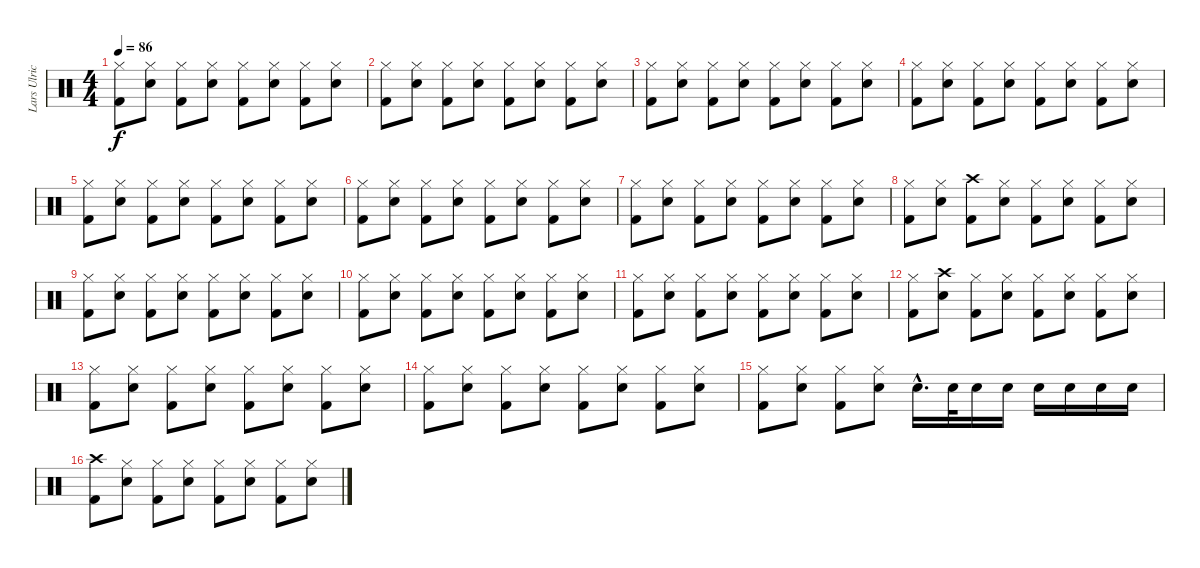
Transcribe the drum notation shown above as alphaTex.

\track ("Lars Ulrich" "Lars Ulric") {instrument percussion}
\staff {score}
\articulation defaults
\ts (4 4)
\tempo 86
\clef neutral
\ks c
("Hi-Hat (closed)" "Kick (hit) 2").8{dy f} ("Hi-Hat (closed)" "Electric Snare (hit)").8 ("Hi-Hat (closed)" "Kick (hit) 2").8 ("Hi-Hat (closed)" "Electric Snare (hit)").8 ("Hi-Hat (closed)" "Kick (hit) 2").8 ("Hi-Hat (closed)" "Electric Snare (hit)").8 ("Hi-Hat (closed)" "Kick (hit) 2").8 ("Hi-Hat (closed)" "Electric Snare (hit)").8 |
("Hi-Hat (closed)" "Kick (hit) 2").8 ("Hi-Hat (closed)" "Electric Snare (hit)").8 ("Hi-Hat (closed)" "Kick (hit) 2").8 ("Hi-Hat (closed)" "Electric Snare (hit)").8 ("Hi-Hat (closed)" "Kick (hit) 2").8 ("Hi-Hat (closed)" "Electric Snare (hit)").8 ("Hi-Hat (closed)" "Kick (hit) 2").8 ("Hi-Hat (closed)" "Electric Snare (hit)").8 |
("Hi-Hat (closed)" "Kick (hit) 2").8 ("Hi-Hat (closed)" "Electric Snare (hit)").8 ("Hi-Hat (closed)" "Kick (hit) 2").8 ("Hi-Hat (closed)" "Electric Snare (hit)").8 ("Hi-Hat (closed)" "Kick (hit) 2").8 ("Hi-Hat (closed)" "Electric Snare (hit)").8 ("Hi-Hat (closed)" "Kick (hit) 2").8 ("Hi-Hat (closed)" "Electric Snare (hit)").8 |
("Hi-Hat (closed)" "Kick (hit) 2").8 ("Hi-Hat (closed)" "Electric Snare (hit)").8 ("Hi-Hat (closed)" "Kick (hit) 2").8 ("Hi-Hat (closed)" "Electric Snare (hit)").8 ("Hi-Hat (closed)" "Kick (hit) 2").8 ("Hi-Hat (closed)" "Electric Snare (hit)").8 ("Hi-Hat (closed)" "Kick (hit) 2").8 ("Hi-Hat (closed)" "Electric Snare (hit)").8 |
("Hi-Hat (closed)" "Kick (hit) 2").8 ("Hi-Hat (closed)" "Electric Snare (hit)").8 ("Hi-Hat (closed)" "Kick (hit) 2").8 ("Hi-Hat (closed)" "Electric Snare (hit)").8 ("Hi-Hat (closed)" "Kick (hit) 2").8 ("Hi-Hat (closed)" "Electric Snare (hit)").8 ("Hi-Hat (closed)" "Kick (hit) 2").8 ("Hi-Hat (closed)" "Electric Snare (hit)").8 |
("Hi-Hat (closed)" "Kick (hit) 2").8 ("Hi-Hat (closed)" "Electric Snare (hit)").8 ("Hi-Hat (closed)" "Kick (hit) 2").8 ("Hi-Hat (closed)" "Electric Snare (hit)").8 ("Hi-Hat (closed)" "Kick (hit) 2").8 ("Hi-Hat (closed)" "Electric Snare (hit)").8 ("Hi-Hat (closed)" "Kick (hit) 2").8 ("Hi-Hat (closed)" "Electric Snare (hit)").8 |
("Hi-Hat (closed)" "Kick (hit) 2").8 ("Hi-Hat (closed)" "Electric Snare (hit)").8 ("Hi-Hat (closed)" "Kick (hit) 2").8 ("Hi-Hat (closed)" "Electric Snare (hit)").8 ("Hi-Hat (closed)" "Kick (hit) 2").8 ("Hi-Hat (closed)" "Electric Snare (hit)").8 ("Hi-Hat (closed)" "Kick (hit) 2").8 ("Hi-Hat (closed)" "Electric Snare (hit)").8 |
("Hi-Hat (closed)" "Kick (hit) 2").8 ("Hi-Hat (closed)" "Electric Snare (hit)").8 ("Crash high (hit)" "Kick (hit) 2").8 ("Hi-Hat (closed)" "Electric Snare (hit)").8 ("Hi-Hat (closed)" "Kick (hit) 2").8 ("Hi-Hat (closed)" "Electric Snare (hit)").8 ("Hi-Hat (closed)" "Kick (hit) 2").8 ("Hi-Hat (closed)" "Electric Snare (hit)").8 |
("Hi-Hat (closed)" "Kick (hit) 2").8 ("Hi-Hat (closed)" "Electric Snare (hit)").8 ("Hi-Hat (closed)" "Kick (hit) 2").8 ("Hi-Hat (closed)" "Electric Snare (hit)").8 ("Hi-Hat (closed)" "Kick (hit) 2").8 ("Hi-Hat (closed)" "Electric Snare (hit)").8 ("Hi-Hat (closed)" "Kick (hit) 2").8 ("Hi-Hat (closed)" "Electric Snare (hit)").8 |
("Hi-Hat (closed)" "Kick (hit) 2").8 ("Hi-Hat (closed)" "Electric Snare (hit)").8 ("Hi-Hat (closed)" "Kick (hit) 2").8 ("Hi-Hat (closed)" "Electric Snare (hit)").8 ("Hi-Hat (closed)" "Kick (hit) 2").8 ("Hi-Hat (closed)" "Electric Snare (hit)").8 ("Hi-Hat (closed)" "Kick (hit) 2").8 ("Hi-Hat (closed)" "Electric Snare (hit)").8 |
("Hi-Hat (closed)" "Kick (hit) 2").8 ("Hi-Hat (closed)" "Electric Snare (hit)").8 ("Hi-Hat (closed)" "Kick (hit) 2").8 ("Hi-Hat (closed)" "Electric Snare (hit)").8 ("Hi-Hat (closed)" "Kick (hit) 2").8 ("Hi-Hat (closed)" "Electric Snare (hit)").8 ("Hi-Hat (closed)" "Kick (hit) 2").8 ("Hi-Hat (closed)" "Electric Snare (hit)").8 |
("Hi-Hat (closed)" "Kick (hit) 2").8 ("Crash high (hit)" "Electric Snare (hit)").8 ("Hi-Hat (closed)" "Kick (hit) 2").8 ("Hi-Hat (closed)" "Electric Snare (hit)").8 ("Hi-Hat (closed)" "Kick (hit) 2").8 ("Hi-Hat (closed)" "Electric Snare (hit)").8 ("Hi-Hat (closed)" "Kick (hit) 2").8 ("Hi-Hat (closed)" "Electric Snare (hit)").8 |
("Hi-Hat (closed)" "Kick (hit) 2").8 ("Hi-Hat (closed)" "Electric Snare (hit)").8 ("Hi-Hat (closed)" "Kick (hit) 2").8 ("Hi-Hat (closed)" "Electric Snare (hit)").8 ("Hi-Hat (closed)" "Kick (hit) 2").8 ("Hi-Hat (closed)" "Electric Snare (hit)").8 ("Hi-Hat (closed)" "Kick (hit) 2").8 ("Hi-Hat (closed)" "Electric Snare (hit)").8 |
("Hi-Hat (closed)" "Kick (hit) 2").8 ("Hi-Hat (closed)" "Electric Snare (hit)").8 ("Hi-Hat (closed)" "Kick (hit) 2").8 ("Hi-Hat (closed)" "Electric Snare (hit)").8 ("Hi-Hat (closed)" "Kick (hit) 2").8 ("Hi-Hat (closed)" "Electric Snare (hit)").8 ("Hi-Hat (closed)" "Kick (hit) 2").8 ("Hi-Hat (closed)" "Electric Snare (hit)").8 |
("Hi-Hat (closed)" "Kick (hit) 2").8 ("Hi-Hat (closed)" "Electric Snare (hit)").8 ("Hi-Hat (closed)" "Kick (hit) 2").8 ("Hi-Hat (closed)" "Electric Snare (hit)").8 "Electric Snare (hit)"{hac}.16{d} "Electric Snare (hit)".32 "Electric Snare (hit)".16 "Electric Snare (hit)".16 "Electric Snare (hit)".16 "Electric Snare (hit)".16 "Electric Snare (hit)".16 "Electric Snare (hit)".16 |
("Crash high (hit)" "Kick (hit) 2").8{volume 15} ("Hi-Hat (closed)" "Electric Snare (hit)").8 ("Hi-Hat (closed)" "Kick (hit) 2").8 ("Hi-Hat (closed)" "Electric Snare (hit)").8 ("Hi-Hat (closed)" "Kick (hit) 2").8 ("Hi-Hat (closed)" "Electric Snare (hit)").8 ("Hi-Hat (closed)" "Kick (hit) 2").8 ("Hi-Hat (closed)" "Electric Snare (hit)").8
